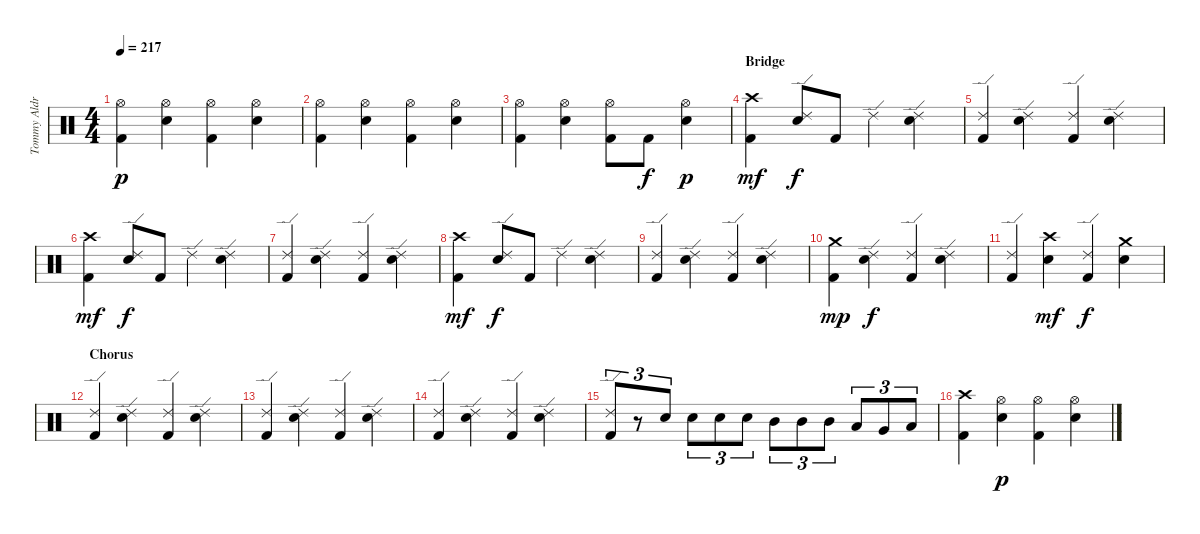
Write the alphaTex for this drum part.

\track ("Tommy Aldridge" "Tommy Aldr") {instrument percussion}
\staff {score}
\articulation defaults
\ts (4 4)
\tempo 217
\clef neutral
\ks c
("Kick (hit) 2" "Hi-Hat (open)").4{dy p} ("Hi-Hat (open)" "Snare (hit) 2").4 ("Kick (hit) 2" "Hi-Hat (open)").4 ("Hi-Hat (open)" "Snare (hit) 2").4 |
("Kick (hit) 2" "Hi-Hat (open)").4 ("Hi-Hat (open)" "Snare (hit) 2").4 ("Kick (hit) 2" "Hi-Hat (open)").4 ("Hi-Hat (open)" "Snare (hit) 2").4 |
("Kick (hit) 2" "Hi-Hat (open)").4 ("Hi-Hat (open)" "Snare (hit) 2").4 ("Kick (hit) 2" "Hi-Hat (open)").8 "Kick (hit) 2".8{dy f} ("Hi-Hat (open)" "Snare (hit) 2").4{dy p} |
\section ("" "Bridge")
("Kick (hit) 2" "Crash high (hit)").4{dy mf} ("Ride (edge) 2" "Snare (hit) 2").8{dy f} "Kick (hit) 2".8 "Ride (edge) 2".4 ("Ride (edge) 2" "Snare (hit) 2").4 |
("Kick (hit) 2" "Ride (edge) 2").4 ("Ride (edge) 2" "Snare (hit) 2").4 ("Kick (hit) 2" "Ride (edge) 2").4 ("Ride (edge) 2" "Snare (hit) 2").4 |
("Kick (hit) 2" "Crash high (hit)").4{dy mf} ("Ride (edge) 2" "Snare (hit) 2").8{dy f} "Kick (hit) 2".8 "Ride (edge) 2".4 ("Ride (edge) 2" "Snare (hit) 2").4 |
("Kick (hit) 2" "Ride (edge) 2").4 ("Ride (edge) 2" "Snare (hit) 2").4 ("Kick (hit) 2" "Ride (edge) 2").4 ("Ride (edge) 2" "Snare (hit) 2").4 |
("Kick (hit) 2" "Crash high (hit)").4{dy mf} ("Ride (edge) 2" "Snare (hit) 2").8{dy f} "Kick (hit) 2".8 "Ride (edge) 2".4 ("Ride (edge) 2" "Snare (hit) 2").4 |
("Kick (hit) 2" "Ride (edge) 2").4 ("Ride (edge) 2" "Snare (hit) 2").4 ("Kick (hit) 2" "Ride (edge) 2").4 ("Ride (edge) 2" "Snare (hit) 2").4 |
("Kick (hit) 2" "Crash medium (hit)").4{dy mp} ("Ride (edge) 2" "Snare (hit) 2").4{dy f} ("Kick (hit) 2" "Ride (edge) 2").4 ("Ride (edge) 2" "Snare (hit) 2").4 |
("Kick (hit) 2" "Ride (edge) 2").4 ("Crash high (hit)" "Snare (hit) 2").4{dy mf} ("Kick (hit) 2" "Ride (edge) 2").4{dy f} ("Crash medium (hit)" "Snare (hit) 2").4 |
\section ("" "Chorus")
("Kick (hit) 2" "Ride (edge) 2").4 ("Ride (edge) 2" "Snare (hit) 2").4 ("Kick (hit) 2" "Ride (edge) 2").4 ("Ride (edge) 2" "Snare (hit) 2").4 |
("Kick (hit) 2" "Ride (edge) 2").4 ("Ride (edge) 2" "Snare (hit) 2").4 ("Kick (hit) 2" "Ride (edge) 2").4 ("Ride (edge) 2" "Snare (hit) 2").4 |
("Kick (hit) 2" "Ride (edge) 2").4 ("Ride (edge) 2" "Snare (hit) 2").4 ("Kick (hit) 2" "Ride (edge) 2").4 ("Ride (edge) 2" "Snare (hit) 2").4 |
("Kick (hit) 2" "Ride (edge) 2").8{tu (3 2)} r.8{tu (3 2)} "Snare (hit) 2".8{tu (3 2)} "Snare (hit) 2".8{tu (3 2)} "Snare (hit) 2".8{tu (3 2)} "Snare (hit) 2".8{tu (3 2)} "Mid Tom (hit)".8{tu (3 2)} "Mid Tom (hit)".8{tu (3 2)} "Mid Tom (hit)".8{tu (3 2)} "Low Tom (hit)".8{tu (3 2)} "Very Low Tom (hit)".8{tu (3 2)} "Low Floor Tom (hit)".8{tu (3 2)} |
("Kick (hit) 2" "Crash high (hit)").4 ("Hi-Hat (open)" "Snare (hit) 2").4{dy p} ("Kick (hit) 2" "Hi-Hat (open)").4 ("Hi-Hat (open)" "Snare (hit) 2").4
